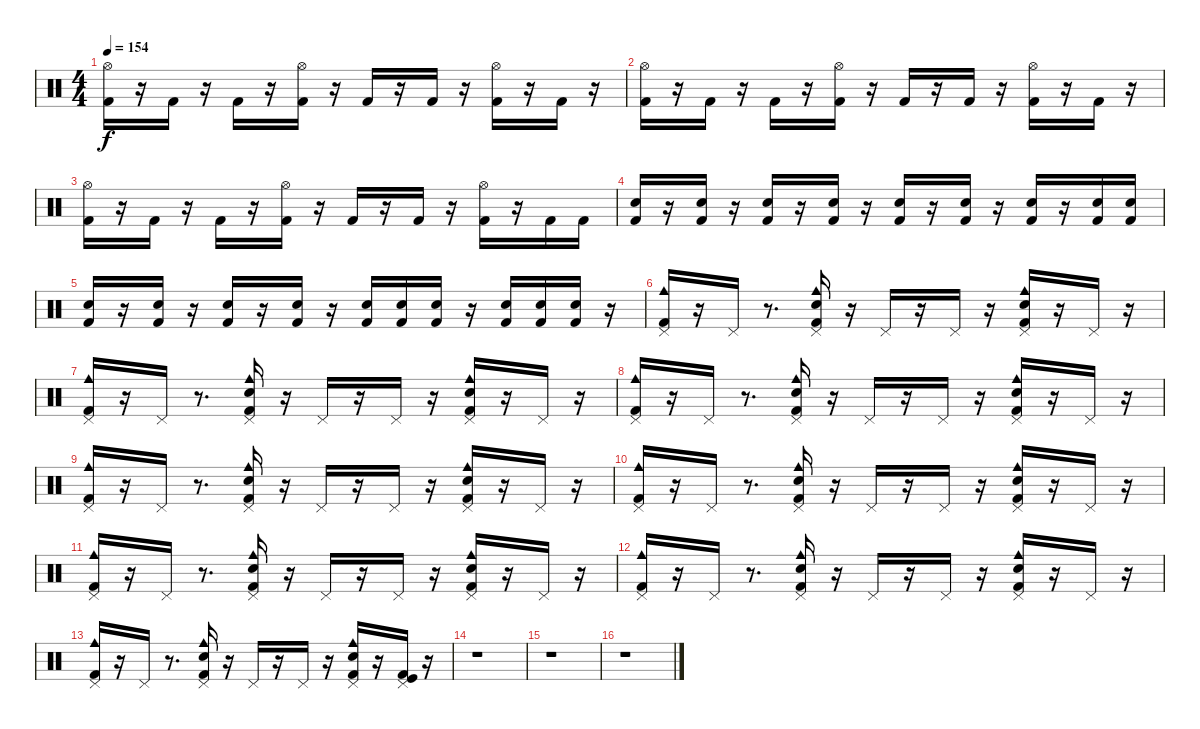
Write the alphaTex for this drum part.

\track "" {instrument percussion}
\staff {score}
\articulation defaults
\ts (4 4)
\tempo 154
\clef neutral
\ks c
("Hi-Hat (open)" "Kick (hit) 2").16{dy f} r.16 "Kick (hit) 2".16 r.16 "Kick (hit) 2".16 r.16 ("Kick (hit) 2" "Hi-Hat (open)").16 r.16 "Kick (hit) 2".16 r.16 "Kick (hit) 2".16 r.16 ("Kick (hit) 2" "Hi-Hat (open)").16 r.16 "Kick (hit) 2".16 r.16 |
("Kick (hit) 2" "Hi-Hat (open)").16 r.16 "Kick (hit) 2".16 r.16 "Kick (hit) 2".16 r.16 ("Hi-Hat (open)" "Kick (hit) 2").16 r.16 "Kick (hit) 2".16 r.16 "Kick (hit) 2".16 r.16 ("Kick (hit) 2" "Hi-Hat (open)").16 r.16 "Kick (hit) 2".16 r.16 |
("Hi-Hat (open)" "Kick (hit) 2").16 r.16 "Kick (hit) 2".16 r.16 "Kick (hit) 2".16 r.16 ("Hi-Hat (open)" "Kick (hit) 2").16 r.16 "Kick (hit) 2".16 r.16 "Kick (hit) 2".16 r.16 ("Hi-Hat (open)" "Kick (hit) 2").16 r.16 "Kick (hit) 2".16 "Kick (hit) 2".16 |
("Kick (hit) 2" "Electric Snare (hit)").16 r.16 ("Electric Snare (hit)" "Kick (hit) 2").16 r.16 ("Electric Snare (hit)" "Kick (hit) 2").16 r.16 ("Electric Snare (hit)" "Kick (hit) 2").16 r.16 ("Electric Snare (hit)" "Kick (hit) 2").16 r.16 ("Kick (hit) 2" "Electric Snare (hit)").16 r.16 ("Electric Snare (hit)" "Kick (hit) 2").16 r.16 ("Kick (hit) 2" "Electric Snare (hit)").16 ("Kick (hit) 2" "Electric Snare (hit)").16 |
("Electric Snare (hit)" "Kick (hit) 2").16 r.16 ("Kick (hit) 2" "Electric Snare (hit)").16 r.16 ("Electric Snare (hit)" "Kick (hit) 2").16 r.16 ("Kick (hit) 2" "Electric Snare (hit)").16 r.16 ("Electric Snare (hit)" "Kick (hit) 2").16 ("Electric Snare (hit)" "Kick (hit) 2").16 ("Kick (hit) 2" "Electric Snare (hit)").16 r.16 ("Electric Snare (hit)" "Kick (hit) 2").16 ("Kick (hit) 2" "Electric Snare (hit)").16 ("Electric Snare (hit)" "Kick (hit) 2").16 r.16 |
("Cowbell medium (hit)" "Pedal Hi-Hat (hit)" "Kick (hit) 2").16 r.16 "Pedal Hi-Hat (hit)".16 r.8{d} ("Cowbell medium (hit)" "Pedal Hi-Hat (hit)" "Electric Snare (hit)" "Kick (hit) 2").16 r.16 "Pedal Hi-Hat (hit)".16 r.16 "Pedal Hi-Hat (hit)".16 r.16 ("Pedal Hi-Hat (hit)" "Kick (hit) 2" "Cowbell medium (hit)" "Electric Snare (hit)").16 r.16 "Pedal Hi-Hat (hit)".16 r.16 |
("Pedal Hi-Hat (hit)" "Cowbell medium (hit)" "Kick (hit) 2").16 r.16 "Pedal Hi-Hat (hit)".16 r.8{d} ("Kick (hit) 2" "Electric Snare (hit)" "Pedal Hi-Hat (hit)" "Cowbell medium (hit)").16 r.16 "Pedal Hi-Hat (hit)".16 r.16 "Pedal Hi-Hat (hit)".16 r.16 ("Electric Snare (hit)" "Kick (hit) 2" "Pedal Hi-Hat (hit)" "Cowbell medium (hit)").16 r.16 "Pedal Hi-Hat (hit)".16 r.16 |
("Kick (hit) 2" "Pedal Hi-Hat (hit)" "Cowbell medium (hit)").16 r.16 "Pedal Hi-Hat (hit)".16 r.8{d} ("Pedal Hi-Hat (hit)" "Kick (hit) 2" "Cowbell medium (hit)" "Electric Snare (hit)").16 r.16 "Pedal Hi-Hat (hit)".16 r.16 "Pedal Hi-Hat (hit)".16 r.16 ("Cowbell medium (hit)" "Electric Snare (hit)" "Pedal Hi-Hat (hit)" "Kick (hit) 2").16 r.16 "Pedal Hi-Hat (hit)".16 r.16 |
("Pedal Hi-Hat (hit)" "Cowbell medium (hit)" "Kick (hit) 2").16 r.16 "Pedal Hi-Hat (hit)".16 r.8{d} ("Pedal Hi-Hat (hit)" "Electric Snare (hit)" "Kick (hit) 2" "Cowbell medium (hit)").16 r.16 "Pedal Hi-Hat (hit)".16 r.16 "Pedal Hi-Hat (hit)".16 r.16 ("Cowbell medium (hit)" "Electric Snare (hit)" "Pedal Hi-Hat (hit)" "Kick (hit) 2").16 r.16 "Pedal Hi-Hat (hit)".16 r.16 |
("Cowbell medium (hit)" "Pedal Hi-Hat (hit)" "Kick (hit) 2").16 r.16 "Pedal Hi-Hat (hit)".16 r.8{d} ("Electric Snare (hit)" "Pedal Hi-Hat (hit)" "Cowbell medium (hit)" "Kick (hit) 2").16 r.16 "Pedal Hi-Hat (hit)".16 r.16 "Pedal Hi-Hat (hit)".16 r.16 ("Pedal Hi-Hat (hit)" "Electric Snare (hit)" "Cowbell medium (hit)" "Kick (hit) 2").16 r.16 "Pedal Hi-Hat (hit)".16 r.16 |
("Cowbell medium (hit)" "Kick (hit) 2" "Pedal Hi-Hat (hit)").16 r.16 "Pedal Hi-Hat (hit)".16 r.8{d} ("Kick (hit) 2" "Cowbell medium (hit)" "Pedal Hi-Hat (hit)" "Electric Snare (hit)").16 r.16 "Pedal Hi-Hat (hit)".16 r.16 "Pedal Hi-Hat (hit)".16 r.16 ("Cowbell medium (hit)" "Pedal Hi-Hat (hit)" "Electric Snare (hit)" "Kick (hit) 2").16 r.16 "Pedal Hi-Hat (hit)".16 r.16 |
("Cowbell medium (hit)" "Pedal Hi-Hat (hit)" "Kick (hit) 2").16 r.16 "Pedal Hi-Hat (hit)".16 r.8{d} ("Kick (hit) 2" "Cowbell medium (hit)" "Electric Snare (hit)" "Pedal Hi-Hat (hit)").16 r.16 "Pedal Hi-Hat (hit)".16 r.16 "Pedal Hi-Hat (hit)".16 r.16 ("Kick (hit) 2" "Electric Snare (hit)" "Pedal Hi-Hat (hit)" "Cowbell medium (hit)").16 r.16 "Pedal Hi-Hat (hit)".16 r.16 |
("Kick (hit) 2" "Cowbell medium (hit)" "Pedal Hi-Hat (hit)").16 r.16 "Pedal Hi-Hat (hit)".16 r.8{d} ("Kick (hit) 2" "Electric Snare (hit)" "Pedal Hi-Hat (hit)" "Cowbell medium (hit)").16 r.16 "Pedal Hi-Hat (hit)".16 r.16 "Pedal Hi-Hat (hit)".16 r.16 ("Electric Snare (hit)" "Kick (hit) 2" "Pedal Hi-Hat (hit)" "Cowbell medium (hit)").16 r.16 ("Pedal Hi-Hat (hit)" "Kick (hit)" "Kick (hit) 2").16 r.16 |
r.1 |
r.1 |
r.1
